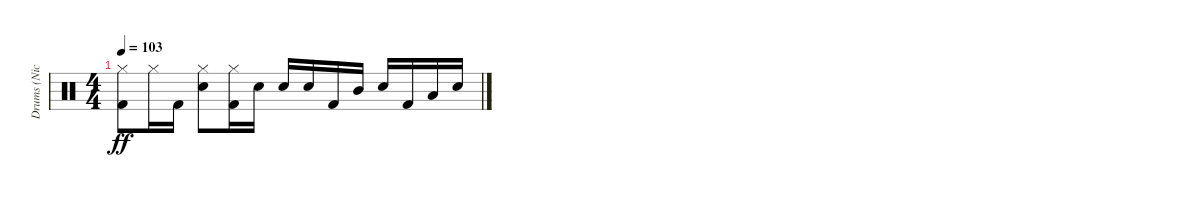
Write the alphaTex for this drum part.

\track ("Drums (Nick Oshiro)" "Drums (Nic") {instrument percussion}
\staff {score}
\articulation defaults
\ts (4 4)
\tempo 103
\clef neutral
\ks c
("Hi-Hat (closed)" "Kick (hit) 2").8{dy ff} "Hi-Hat (closed)".16 "Kick (hit) 2".16 ("Hi-Hat (closed)" "Snare (hit) 2").8 ("Hi-Hat (closed)" "Kick (hit) 2").16 "Snare (hit) 2".16 "Snare (hit) 2".16 "Snare (hit) 2".16 "Kick (hit) 2".16 "Mid Tom (hit)".16 "Snare (hit) 2".16 "Kick (hit) 2".16 "Low Tom (hit)".16 "Snare (hit) 2".16
